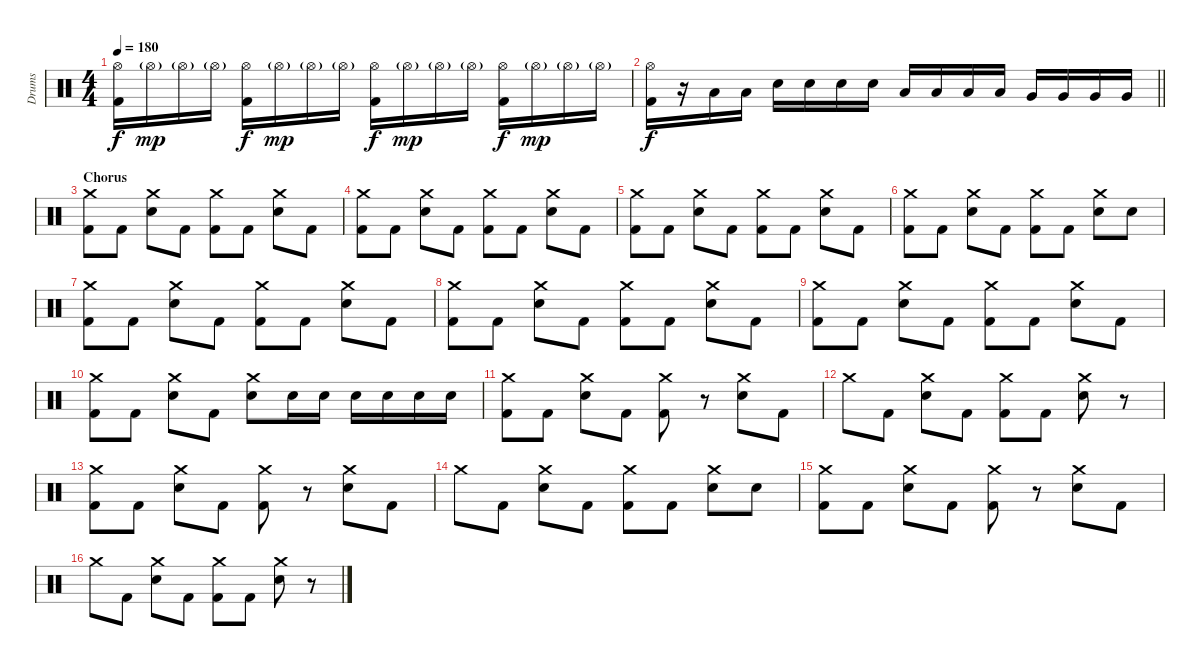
\track ("Drums" "Drums") {instrument percussion}
\staff {score}
\articulation defaults
\ts (4 4)
\tempo 180
\clef neutral
\ks c
("Hi-Hat (open)" "Kick (hit) 2").16{dy f} "Hi-Hat (open)"{g}.16{dy mp} "Hi-Hat (open)"{g}.16 "Hi-Hat (open)"{g}.16 ("Hi-Hat (open)" "Kick (hit) 2").16{dy f} "Hi-Hat (open)"{g}.16{dy mp} "Hi-Hat (open)"{g}.16 "Hi-Hat (open)"{g}.16 ("Hi-Hat (open)" "Kick (hit) 2").16{dy f} "Hi-Hat (open)"{g}.16{dy mp} "Hi-Hat (open)"{g}.16 "Hi-Hat (open)"{g}.16 ("Hi-Hat (open)" "Kick (hit) 2").16{dy f} "Hi-Hat (open)"{g}.16{dy mp} "Hi-Hat (open)"{g}.16 "Hi-Hat (open)"{g}.16 |
\barLineRight lightlight
("Hi-Hat (open)" "Kick (hit) 2").16{dy f} r.16 "Low Tom (hit)".16 "Low Tom (hit)".16 "Electric Snare (hit)".16 "Electric Snare (hit)".16 "Electric Snare (hit)".16 "Electric Snare (hit)".16 "Low Tom (hit)".16 "Low Tom (hit)".16 "Low Tom (hit)".16 "Low Tom (hit)".16 "Very Low Tom (hit)".16 "Very Low Tom (hit)".16 "Very Low Tom (hit)".16 "Very Low Tom (hit)".16 |
\section ("" "Chorus")
("Crash medium (hit)" "Kick (hit) 2").8 "Kick (hit) 2".8 ("Crash medium (hit)" "Electric Snare (hit)").8 "Kick (hit) 2".8 ("Crash medium (hit)" "Kick (hit) 2").8 "Kick (hit) 2".8 ("Crash medium (hit)" "Electric Snare (hit)").8 "Kick (hit) 2".8 |
("Crash medium (hit)" "Kick (hit) 2").8 "Kick (hit) 2".8 ("Crash medium (hit)" "Electric Snare (hit)").8 "Kick (hit) 2".8 ("Crash medium (hit)" "Kick (hit) 2").8 "Kick (hit) 2".8 ("Crash medium (hit)" "Electric Snare (hit)").8 "Kick (hit) 2".8 |
("Crash medium (hit)" "Kick (hit) 2").8 "Kick (hit) 2".8 ("Crash medium (hit)" "Electric Snare (hit)").8 "Kick (hit) 2".8 ("Crash medium (hit)" "Kick (hit) 2").8 "Kick (hit) 2".8 ("Crash medium (hit)" "Electric Snare (hit)").8 "Kick (hit) 2".8 |
("Crash medium (hit)" "Kick (hit) 2").8 "Kick (hit) 2".8 ("Crash medium (hit)" "Electric Snare (hit)").8 "Kick (hit) 2".8 ("Crash medium (hit)" "Kick (hit) 2").8 "Kick (hit) 2".8 ("Crash medium (hit)" "Electric Snare (hit)").8 "Electric Snare (hit)".8 |
("Crash medium (hit)" "Kick (hit) 2").8 "Kick (hit) 2".8 ("Crash medium (hit)" "Electric Snare (hit)").8 "Kick (hit) 2".8 ("Crash medium (hit)" "Kick (hit) 2").8 "Kick (hit) 2".8 ("Crash medium (hit)" "Electric Snare (hit)").8 "Kick (hit) 2".8 |
("Crash medium (hit)" "Kick (hit) 2").8 "Kick (hit) 2".8 ("Crash medium (hit)" "Electric Snare (hit)").8 "Kick (hit) 2".8 ("Crash medium (hit)" "Kick (hit) 2").8 "Kick (hit) 2".8 ("Crash medium (hit)" "Electric Snare (hit)").8 "Kick (hit) 2".8 |
("Crash medium (hit)" "Kick (hit) 2").8 "Kick (hit) 2".8 ("Crash medium (hit)" "Electric Snare (hit)").8 "Kick (hit) 2".8 ("Crash medium (hit)" "Kick (hit) 2").8 "Kick (hit) 2".8 ("Crash medium (hit)" "Electric Snare (hit)").8 "Kick (hit) 2".8 |
("Crash medium (hit)" "Kick (hit) 2").8 "Kick (hit) 2".8 ("Crash medium (hit)" "Electric Snare (hit)").8 "Kick (hit) 2".8 ("Crash medium (hit)" "Electric Snare (hit)").8 "Electric Snare (hit)".16 "Electric Snare (hit)".16 "Electric Snare (hit)".16 "Electric Snare (hit)".16 "Electric Snare (hit)".16 "Electric Snare (hit)".16 |
("Crash medium (hit)" "Kick (hit) 2").8 "Kick (hit) 2".8 ("Crash medium (hit)" "Electric Snare (hit)").8 "Kick (hit) 2".8 ("Crash medium (hit)" "Kick (hit) 2").8 r.8 ("Crash medium (hit)" "Electric Snare (hit)").8 "Kick (hit) 2".8 |
"Crash medium (hit)".8 "Kick (hit) 2".8 ("Crash medium (hit)" "Electric Snare (hit)").8 "Kick (hit) 2".8 ("Crash medium (hit)" "Kick (hit) 2").8 "Kick (hit) 2".8 ("Crash medium (hit)" "Electric Snare (hit)").8 r.8 |
("Crash medium (hit)" "Kick (hit) 2").8 "Kick (hit) 2".8 ("Crash medium (hit)" "Electric Snare (hit)").8 "Kick (hit) 2".8 ("Crash medium (hit)" "Kick (hit) 2").8 r.8 ("Crash medium (hit)" "Electric Snare (hit)").8 "Kick (hit) 2".8 |
"Crash medium (hit)".8 "Kick (hit) 2".8 ("Crash medium (hit)" "Electric Snare (hit)").8 "Kick (hit) 2".8 ("Crash medium (hit)" "Kick (hit) 2").8 "Kick (hit) 2".8 ("Crash medium (hit)" "Electric Snare (hit)").8 "Electric Snare (hit)".8 |
("Crash medium (hit)" "Kick (hit) 2").8 "Kick (hit) 2".8 ("Crash medium (hit)" "Electric Snare (hit)").8 "Kick (hit) 2".8 ("Crash medium (hit)" "Kick (hit) 2").8 r.8 ("Crash medium (hit)" "Electric Snare (hit)").8 "Kick (hit) 2".8 |
"Crash medium (hit)".8 "Kick (hit) 2".8 ("Crash medium (hit)" "Electric Snare (hit)").8 "Kick (hit) 2".8 ("Crash medium (hit)" "Kick (hit) 2").8 "Kick (hit) 2".8 ("Crash medium (hit)" "Electric Snare (hit)").8 r.8
